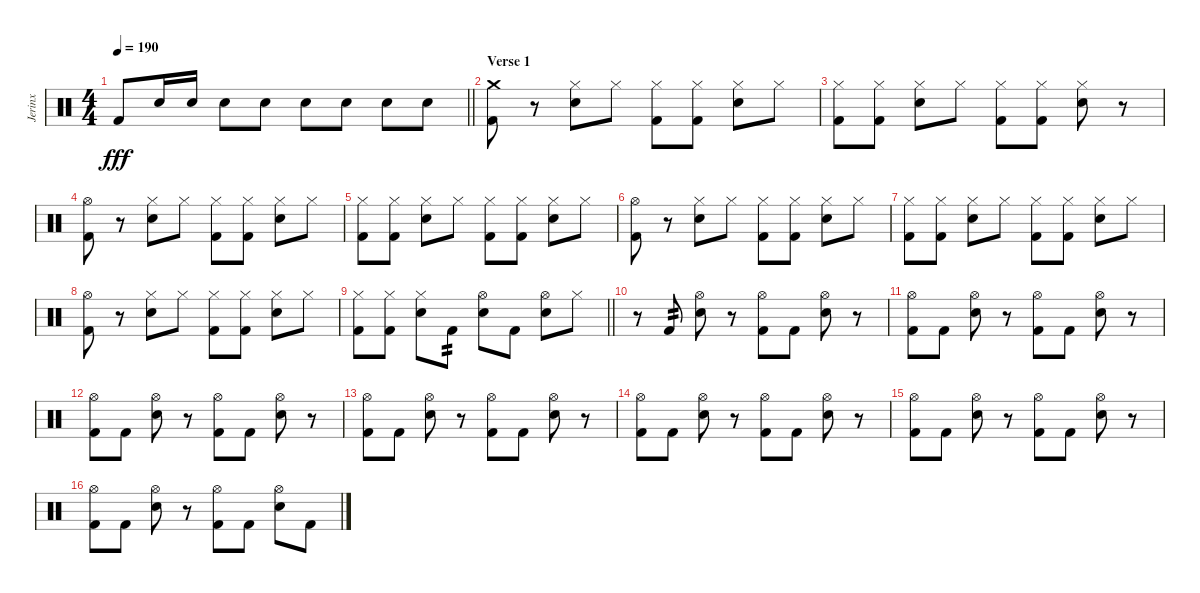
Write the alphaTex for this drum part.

\track ("Jerinx" "Jerinx") {instrument percussion}
\staff {score}
\articulation defaults
\ts (4 4)
\tempo 190
\clef neutral
\barLineRight lightlight
\ks c "Kick (hit) 2".8{dy fff} "Electric Snare (hit)".16 "Electric Snare (hit)".16 "Electric Snare (hit)".8 "Electric Snare (hit)".8 "Electric Snare (hit)".8 "Electric Snare (hit)".8 "Electric Snare (hit)".8 "Electric Snare (hit)".8
|
\section ("" "Verse 1")
("Kick (hit) 2" "Crash medium (hit)").8 r.8 ("Hi-Hat (closed)" "Electric Snare (hit)").8 "Hi-Hat (closed)".8 ("Hi-Hat (closed)" "Kick (hit) 2").8 ("Hi-Hat (closed)" "Kick (hit) 2").8 ("Hi-Hat (closed)" "Electric Snare (hit)").8 "Hi-Hat (closed)".8 |
("Hi-Hat (closed)" "Kick (hit) 2").8 ("Hi-Hat (closed)" "Kick (hit) 2").8 ("Hi-Hat (closed)" "Electric Snare (hit)").8 "Hi-Hat (closed)".8 ("Hi-Hat (closed)" "Kick (hit) 2").8 ("Hi-Hat (closed)" "Kick (hit) 2").8 ("Hi-Hat (closed)" "Electric Snare (hit)").8 r.8 |
("Hi-Hat (open)" "Kick (hit) 2").8 r.8 ("Hi-Hat (closed)" "Electric Snare (hit)").8 "Hi-Hat (closed)".8 ("Hi-Hat (closed)" "Kick (hit) 2").8 ("Hi-Hat (closed)" "Kick (hit) 2").8 ("Hi-Hat (closed)" "Electric Snare (hit)").8 "Hi-Hat (closed)".8 |
("Hi-Hat (closed)" "Kick (hit) 2").8 ("Hi-Hat (closed)" "Kick (hit) 2").8 ("Hi-Hat (closed)" "Electric Snare (hit)").8 "Hi-Hat (closed)".8 ("Hi-Hat (closed)" "Kick (hit) 2").8 ("Hi-Hat (closed)" "Kick (hit) 2").8 ("Hi-Hat (closed)" "Electric Snare (hit)").8 "Hi-Hat (closed)".8 |
("Hi-Hat (open)" "Kick (hit) 2").8 r.8 ("Hi-Hat (closed)" "Electric Snare (hit)").8 "Hi-Hat (closed)".8 ("Hi-Hat (closed)" "Kick (hit) 2").8 ("Hi-Hat (closed)" "Kick (hit) 2").8 ("Hi-Hat (closed)" "Electric Snare (hit)").8 "Hi-Hat (closed)".8 |
("Hi-Hat (closed)" "Kick (hit) 2").8 ("Hi-Hat (closed)" "Kick (hit) 2").8 ("Hi-Hat (closed)" "Electric Snare (hit)").8 "Hi-Hat (closed)".8 ("Hi-Hat (closed)" "Kick (hit) 2").8 ("Hi-Hat (closed)" "Kick (hit) 2").8 ("Hi-Hat (closed)" "Electric Snare (hit)").8 "Hi-Hat (closed)".8 |
("Hi-Hat (open)" "Kick (hit) 2").8 r.8 ("Hi-Hat (closed)" "Electric Snare (hit)").8 "Hi-Hat (closed)".8 ("Hi-Hat (closed)" "Kick (hit) 2").8 ("Hi-Hat (closed)" "Kick (hit) 2").8 ("Hi-Hat (closed)" "Electric Snare (hit)").8 "Hi-Hat (closed)".8 |
\barLineRight lightlight
("Hi-Hat (closed)" "Kick (hit) 2").8 ("Hi-Hat (closed)" "Kick (hit) 2").8 ("Hi-Hat (closed)" "Electric Snare (hit)").8 "Kick (hit) 2".8{tp 2} ("Hi-Hat (open)" "Electric Snare (hit)").8 "Kick (hit) 2".8 ("Hi-Hat (open)" "Electric Snare (hit)").8 "Hi-Hat (closed)".8 |
\section ("" "")
r.8 "Kick (hit) 2".8{tp 2} ("Hi-Hat (open)" "Electric Snare (hit)").8 r.8 ("Hi-Hat (open)" "Kick (hit) 2").8 "Kick (hit) 2".8 ("Hi-Hat (open)" "Electric Snare (hit)").8 r.8 |
("Hi-Hat (open)" "Kick (hit) 2").8 "Kick (hit) 2".8 ("Hi-Hat (open)" "Electric Snare (hit)").8 r.8 ("Hi-Hat (open)" "Kick (hit) 2").8 "Kick (hit) 2".8 ("Hi-Hat (open)" "Electric Snare (hit)").8 r.8 |
("Hi-Hat (open)" "Kick (hit) 2").8 "Kick (hit) 2".8 ("Hi-Hat (open)" "Electric Snare (hit)").8 r.8 ("Hi-Hat (open)" "Kick (hit) 2").8 "Kick (hit) 2".8 ("Hi-Hat (open)" "Electric Snare (hit)").8 r.8 |
("Hi-Hat (open)" "Kick (hit) 2").8 "Kick (hit) 2".8 ("Hi-Hat (open)" "Electric Snare (hit)").8 r.8 ("Hi-Hat (open)" "Kick (hit) 2").8 "Kick (hit) 2".8 ("Hi-Hat (open)" "Electric Snare (hit)").8 r.8 |
("Hi-Hat (open)" "Kick (hit) 2").8 "Kick (hit) 2".8 ("Hi-Hat (open)" "Electric Snare (hit)").8 r.8 ("Hi-Hat (open)" "Kick (hit) 2").8 "Kick (hit) 2".8 ("Hi-Hat (open)" "Electric Snare (hit)").8 r.8 |
("Hi-Hat (open)" "Kick (hit) 2").8 "Kick (hit) 2".8 ("Hi-Hat (open)" "Electric Snare (hit)").8 r.8 ("Hi-Hat (open)" "Kick (hit) 2").8 "Kick (hit) 2".8 ("Hi-Hat (open)" "Electric Snare (hit)").8 r.8 |
("Hi-Hat (open)" "Kick (hit) 2").8 "Kick (hit) 2".8 ("Hi-Hat (open)" "Electric Snare (hit)").8 r.8 ("Hi-Hat (open)" "Kick (hit) 2").8 "Kick (hit) 2".8 ("Hi-Hat (open)" "Electric Snare (hit)").8 "Kick (hit) 2".8
